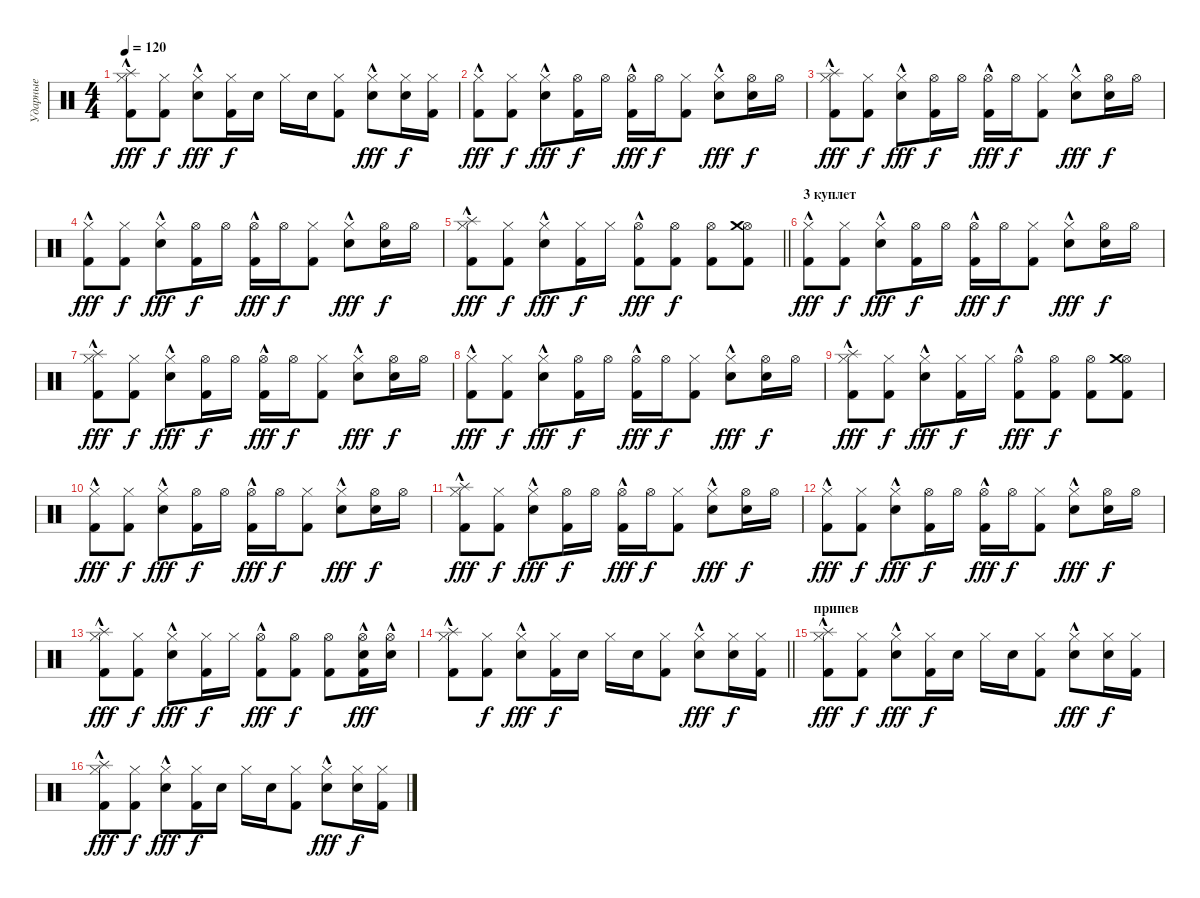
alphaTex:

\track ("Ударные" "Ударные") {instrument percussion}
\staff {score}
\articulation defaults
\ts (4 4)
\tempo 120
\clef neutral
\ks c
("Hi-Hat (closed)" "Splash (hit)" "Kick (hit) 2"{hac}).8{dy fff} ("Hi-Hat (closed)" "Kick (hit) 2").8{dy f} ("Hi-Hat (closed)" "Snare (hit) 2"{hac}).8{dy fff} ("Hi-Hat (closed)" "Kick (hit) 2").16{dy f} "Snare (hit) 2".16 "Hi-Hat (closed)".16 "Snare (hit) 2".16 ("Hi-Hat (closed)" "Kick (hit) 2").8 ("Hi-Hat (closed)" "Snare (hit) 2"{hac}).8{dy fff} ("Hi-Hat (closed)" "Snare (hit) 2").16{dy f} ("Hi-Hat (closed)" "Kick (hit) 2").16 |
("Hi-Hat (closed)"{hac} "Kick (hit) 2"{hac}).8{dy fff} ("Hi-Hat (closed)" "Kick (hit) 2").8{dy f} ("Hi-Hat (closed)"{hac} "Snare (hit) 2"{hac}).8{dy fff} ("Hi-Hat (open)" "Kick (hit) 2").16{dy f} "Hi-Hat (open)".16 ("Hi-Hat (open)" "Kick (hit) 2"{hac}).16{dy fff} "Hi-Hat (open)".16{dy f} ("Hi-Hat (closed)" "Kick (hit) 2").8 ("Hi-Hat (closed)" "Snare (hit) 2"{hac}).8{dy fff} ("Hi-Hat (open)" "Electric Snare (hit)").16{dy f} "Hi-Hat (open)".16 |
("Hi-Hat (closed)"{hac} "Splash (hit)" "Kick (hit) 2"{hac}).8{dy fff} ("Hi-Hat (closed)" "Kick (hit) 2").8{dy f} ("Hi-Hat (closed)"{hac} "Snare (hit) 2"{hac}).8{dy fff} ("Hi-Hat (open)" "Kick (hit) 2").16{dy f} "Hi-Hat (open)".16 ("Hi-Hat (open)" "Kick (hit) 2"{hac}).16{dy fff} "Hi-Hat (open)".16{dy f} ("Hi-Hat (closed)" "Kick (hit) 2").8 ("Hi-Hat (closed)" "Snare (hit) 2"{hac}).8{dy fff} ("Hi-Hat (open)" "Electric Snare (hit)").16{dy f} "Hi-Hat (open)".16 |
("Hi-Hat (closed)"{hac} "Kick (hit) 2"{hac}).8{dy fff} ("Hi-Hat (closed)" "Kick (hit) 2").8{dy f} ("Hi-Hat (closed)"{hac} "Snare (hit) 2"{hac}).8{dy fff} ("Hi-Hat (open)" "Kick (hit) 2").16{dy f} "Hi-Hat (open)".16 ("Hi-Hat (open)" "Kick (hit) 2"{hac}).16{dy fff} "Hi-Hat (open)".16{dy f} ("Hi-Hat (closed)" "Kick (hit) 2").8 ("Hi-Hat (closed)" "Snare (hit) 2"{hac}).8{dy fff} ("Hi-Hat (open)" "Electric Snare (hit)").16{dy f} "Hi-Hat (open)".16 |
\barLineRight lightlight
("Hi-Hat (closed)"{hac} "Splash (hit)" "Kick (hit) 2"{hac}).8{dy fff} ("Hi-Hat (closed)" "Kick (hit) 2").8{dy f} ("Hi-Hat (closed)"{hac} "Snare (hit) 2"{hac}).8{dy fff} ("Hi-Hat (closed)" "Kick (hit) 2").16{dy f} "Hi-Hat (closed)".16 ("Hi-Hat (open)" "Kick (hit) 2"{hac}).8{dy fff} ("Hi-Hat (open)" "Kick (hit) 2").8{dy f} ("Hi-Hat (open)" "Kick (hit) 2").8 ("Hi-Hat (open)" "Crash medium (hit)" "Kick (hit) 2").8 |
\section ("" "3 куплет")
("Hi-Hat (closed)"{hac} "Kick (hit) 2"{hac}).8{dy fff} ("Hi-Hat (closed)" "Kick (hit) 2").8{dy f} ("Hi-Hat (closed)"{hac} "Snare (hit) 2"{hac}).8{dy fff} ("Hi-Hat (open)" "Kick (hit) 2").16{dy f} "Hi-Hat (open)".16 ("Hi-Hat (open)" "Kick (hit) 2"{hac}).16{dy fff} "Hi-Hat (open)".16{dy f} ("Hi-Hat (closed)" "Kick (hit) 2").8 ("Hi-Hat (closed)" "Snare (hit) 2"{hac}).8{dy fff} ("Hi-Hat (open)" "Electric Snare (hit)").16{dy f} "Hi-Hat (open)".16 |
("Hi-Hat (closed)"{hac} "Splash (hit)" "Kick (hit) 2"{hac}).8{dy fff} ("Hi-Hat (closed)" "Kick (hit) 2").8{dy f} ("Hi-Hat (closed)"{hac} "Snare (hit) 2"{hac}).8{dy fff} ("Hi-Hat (open)" "Kick (hit) 2").16{dy f} "Hi-Hat (open)".16 ("Hi-Hat (open)" "Kick (hit) 2"{hac}).16{dy fff} "Hi-Hat (open)".16{dy f} ("Hi-Hat (closed)" "Kick (hit) 2").8 ("Hi-Hat (closed)" "Snare (hit) 2"{hac}).8{dy fff} ("Hi-Hat (open)" "Electric Snare (hit)").16{dy f} "Hi-Hat (open)".16 |
("Hi-Hat (closed)"{hac} "Kick (hit) 2"{hac}).8{dy fff} ("Hi-Hat (closed)" "Kick (hit) 2").8{dy f} ("Hi-Hat (closed)"{hac} "Snare (hit) 2"{hac}).8{dy fff} ("Hi-Hat (open)" "Kick (hit) 2").16{dy f} "Hi-Hat (open)".16 ("Hi-Hat (open)" "Kick (hit) 2"{hac}).16{dy fff} "Hi-Hat (open)".16{dy f} ("Hi-Hat (closed)" "Kick (hit) 2").8 ("Hi-Hat (closed)" "Snare (hit) 2"{hac}).8{dy fff} ("Hi-Hat (open)" "Electric Snare (hit)").16{dy f} "Hi-Hat (open)".16 |
("Hi-Hat (closed)"{hac} "Splash (hit)" "Kick (hit) 2"{hac}).8{dy fff} ("Hi-Hat (closed)" "Kick (hit) 2").8{dy f} ("Hi-Hat (closed)"{hac} "Snare (hit) 2"{hac}).8{dy fff} ("Hi-Hat (closed)" "Kick (hit) 2").16{dy f} "Hi-Hat (closed)".16 ("Hi-Hat (open)" "Kick (hit) 2"{hac}).8{dy fff} ("Hi-Hat (open)" "Kick (hit) 2").8{dy f} ("Hi-Hat (open)" "Kick (hit) 2").8 ("Hi-Hat (open)" "Crash medium (hit)" "Kick (hit) 2").8 |
("Hi-Hat (closed)"{hac} "Kick (hit) 2"{hac}).8{dy fff} ("Hi-Hat (closed)" "Kick (hit) 2").8{dy f} ("Hi-Hat (closed)"{hac} "Snare (hit) 2"{hac}).8{dy fff} ("Hi-Hat (open)" "Kick (hit) 2").16{dy f} "Hi-Hat (open)".16 ("Hi-Hat (open)" "Kick (hit) 2"{hac}).16{dy fff} "Hi-Hat (open)".16{dy f} ("Hi-Hat (closed)" "Kick (hit) 2").8 ("Hi-Hat (closed)" "Snare (hit) 2"{hac}).8{dy fff} ("Hi-Hat (open)" "Electric Snare (hit)").16{dy f} "Hi-Hat (open)".16 |
("Hi-Hat (closed)"{hac} "Splash (hit)" "Kick (hit) 2"{hac}).8{dy fff} ("Hi-Hat (closed)" "Kick (hit) 2").8{dy f} ("Hi-Hat (closed)"{hac} "Snare (hit) 2"{hac}).8{dy fff} ("Hi-Hat (open)" "Kick (hit) 2").16{dy f} "Hi-Hat (open)".16 ("Hi-Hat (open)" "Kick (hit) 2"{hac}).16{dy fff} "Hi-Hat (open)".16{dy f} ("Hi-Hat (closed)" "Kick (hit) 2").8 ("Hi-Hat (closed)" "Snare (hit) 2"{hac}).8{dy fff} ("Hi-Hat (open)" "Electric Snare (hit)").16{dy f} "Hi-Hat (open)".16 |
("Hi-Hat (closed)"{hac} "Kick (hit) 2"{hac}).8{dy fff} ("Hi-Hat (closed)" "Kick (hit) 2").8{dy f} ("Hi-Hat (closed)"{hac} "Snare (hit) 2"{hac}).8{dy fff} ("Hi-Hat (open)" "Kick (hit) 2").16{dy f} "Hi-Hat (open)".16 ("Hi-Hat (open)" "Kick (hit) 2"{hac}).16{dy fff} "Hi-Hat (open)".16{dy f} ("Hi-Hat (closed)" "Kick (hit) 2").8 ("Hi-Hat (closed)" "Snare (hit) 2"{hac}).8{dy fff} ("Hi-Hat (open)" "Electric Snare (hit)").16{dy f} "Hi-Hat (open)".16 |
("Hi-Hat (closed)"{hac} "Splash (hit)" "Kick (hit) 2"{hac}).8{dy fff} ("Hi-Hat (closed)" "Kick (hit) 2").8{dy f} ("Hi-Hat (closed)"{hac} "Snare (hit) 2"{hac}).8{dy fff} ("Hi-Hat (closed)" "Kick (hit) 2").16{dy f} "Hi-Hat (closed)".16 ("Hi-Hat (open)" "Kick (hit) 2"{hac}).8{dy fff} ("Hi-Hat (open)" "Kick (hit) 2").8{dy f} ("Hi-Hat (open)" "Kick (hit) 2").8 ("Hi-Hat (open)"{hac} "Snare (hit) 2"{hac} "Kick (hit) 2"{hac}).16{dy fff} ("Hi-Hat (open)"{hac} "Snare (hit) 2"{hac}).16 |
\barLineRight lightlight
("Hi-Hat (closed)" "Splash (hit)" "Kick (hit) 2"{hac}).8 ("Hi-Hat (closed)" "Kick (hit) 2").8{dy f} ("Hi-Hat (closed)" "Snare (hit) 2"{hac}).8{dy fff} ("Hi-Hat (closed)" "Kick (hit) 2").16{dy f} "Snare (hit) 2".16 "Hi-Hat (closed)".16 "Snare (hit) 2".16 ("Hi-Hat (closed)" "Kick (hit) 2").8 ("Hi-Hat (closed)" "Snare (hit) 2"{hac}).8{dy fff} ("Hi-Hat (closed)" "Snare (hit) 2").16{dy f} ("Hi-Hat (closed)" "Kick (hit) 2").16 |
\section ("" "припев")
("Hi-Hat (closed)" "Splash (hit)" "Kick (hit) 2"{hac}).8{dy fff} ("Hi-Hat (closed)" "Kick (hit) 2").8{dy f} ("Hi-Hat (closed)" "Snare (hit) 2"{hac}).8{dy fff} ("Hi-Hat (closed)" "Kick (hit) 2").16{dy f} "Snare (hit) 2".16 "Hi-Hat (closed)".16 "Snare (hit) 2".16 ("Hi-Hat (closed)" "Kick (hit) 2").8 ("Hi-Hat (closed)" "Snare (hit) 2"{hac}).8{dy fff} ("Hi-Hat (closed)" "Snare (hit) 2").16{dy f} ("Hi-Hat (closed)" "Kick (hit) 2").16 |
("Hi-Hat (closed)" "Splash (hit)" "Kick (hit) 2"{hac}).8{dy fff} ("Hi-Hat (closed)" "Kick (hit) 2").8{dy f} ("Hi-Hat (closed)" "Snare (hit) 2"{hac}).8{dy fff} ("Hi-Hat (closed)" "Kick (hit) 2").16{dy f} "Snare (hit) 2".16 "Hi-Hat (closed)".16 "Snare (hit) 2".16 ("Hi-Hat (closed)" "Kick (hit) 2").8 ("Hi-Hat (closed)" "Snare (hit) 2"{hac}).8{dy fff} ("Hi-Hat (closed)" "Snare (hit) 2").16{dy f} ("Hi-Hat (closed)" "Kick (hit) 2").16
